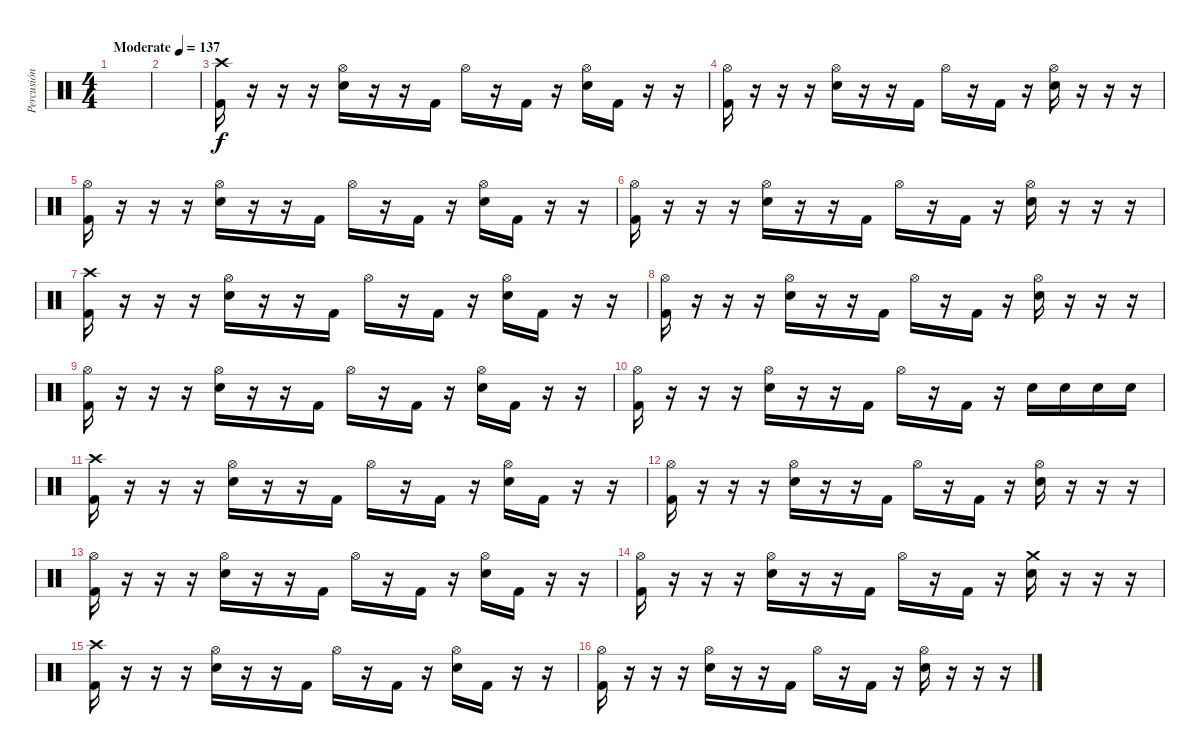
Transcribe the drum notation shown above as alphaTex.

\track ("Percusión" "Percusión") {instrument percussion}
\staff {score}
\articulation defaults
\ts (4 4)
\tempo (137 "Moderate")
\clef neutral
\ks c
|
|
("Crash high (hit)" "Kick (hit) 2").16 r.16 r.16 r.16 ("Hi-Hat (open)" "Electric Snare (hit)").16 r.16 r.16 "Kick (hit) 2".16 "Hi-Hat (open)".16 r.16 "Kick (hit) 2".16 r.16 ("Hi-Hat (open)" "Electric Snare (hit)").16 "Kick (hit) 2".16 r.16 r.16 |
("Hi-Hat (open)" "Kick (hit) 2").16 r.16 r.16 r.16 ("Hi-Hat (open)" "Electric Snare (hit)").16 r.16 r.16 "Kick (hit) 2".16 "Hi-Hat (open)".16 r.16 "Kick (hit) 2".16 r.16 ("Hi-Hat (open)" "Electric Snare (hit)").16 r.16 r.16 r.16 |
("Hi-Hat (open)" "Kick (hit) 2").16 r.16 r.16 r.16 ("Hi-Hat (open)" "Electric Snare (hit)").16 r.16 r.16 "Kick (hit) 2".16 "Hi-Hat (open)".16 r.16 "Kick (hit) 2".16 r.16 ("Hi-Hat (open)" "Electric Snare (hit)").16 "Kick (hit) 2".16 r.16 r.16 |
("Hi-Hat (open)" "Kick (hit) 2").16 r.16 r.16 r.16 ("Hi-Hat (open)" "Electric Snare (hit)").16 r.16 r.16 "Kick (hit) 2".16 "Hi-Hat (open)".16 r.16 "Kick (hit) 2".16 r.16 ("Hi-Hat (open)" "Electric Snare (hit)").16 r.16 r.16 r.16 |
("Crash high (hit)" "Kick (hit) 2").16 r.16 r.16 r.16 ("Hi-Hat (open)" "Electric Snare (hit)").16 r.16 r.16 "Kick (hit) 2".16 "Hi-Hat (open)".16 r.16 "Kick (hit) 2".16 r.16 ("Hi-Hat (open)" "Electric Snare (hit)").16 "Kick (hit) 2".16 r.16 r.16 |
("Hi-Hat (open)" "Kick (hit) 2").16 r.16 r.16 r.16 ("Hi-Hat (open)" "Electric Snare (hit)").16 r.16 r.16 "Kick (hit) 2".16 "Hi-Hat (open)".16 r.16 "Kick (hit) 2".16 r.16 ("Hi-Hat (open)" "Electric Snare (hit)").16 r.16 r.16 r.16 |
("Hi-Hat (open)" "Kick (hit) 2").16 r.16 r.16 r.16 ("Hi-Hat (open)" "Electric Snare (hit)").16 r.16 r.16 "Kick (hit) 2".16 "Hi-Hat (open)".16 r.16 "Kick (hit) 2".16 r.16 ("Hi-Hat (open)" "Electric Snare (hit)").16 "Kick (hit) 2".16 r.16 r.16 |
("Hi-Hat (open)" "Kick (hit) 2").16 r.16 r.16 r.16 ("Hi-Hat (open)" "Electric Snare (hit)").16 r.16 r.16 "Kick (hit) 2".16 "Hi-Hat (open)".16 r.16 "Kick (hit) 2".16 r.16 "Electric Snare (hit)".16 "Electric Snare (hit)".16 "Electric Snare (hit)".16 "Electric Snare (hit)".16 |
("Crash high (hit)" "Kick (hit) 2").16 r.16 r.16 r.16 ("Hi-Hat (open)" "Electric Snare (hit)").16 r.16 r.16 "Kick (hit) 2".16 "Hi-Hat (open)".16 r.16 "Kick (hit) 2".16 r.16 ("Hi-Hat (open)" "Electric Snare (hit)").16 "Kick (hit) 2".16 r.16 r.16 |
("Hi-Hat (open)" "Kick (hit) 2").16 r.16 r.16 r.16 ("Hi-Hat (open)" "Electric Snare (hit)").16 r.16 r.16 "Kick (hit) 2".16 "Hi-Hat (open)".16 r.16 "Kick (hit) 2".16 r.16 ("Hi-Hat (open)" "Electric Snare (hit)").16 r.16 r.16 r.16 |
("Hi-Hat (open)" "Kick (hit) 2").16 r.16 r.16 r.16 ("Hi-Hat (open)" "Electric Snare (hit)").16 r.16 r.16 "Kick (hit) 2".16 "Hi-Hat (open)".16 r.16 "Kick (hit) 2".16 r.16 ("Hi-Hat (open)" "Electric Snare (hit)").16 "Kick (hit) 2".16 r.16 r.16 |
("Hi-Hat (open)" "Kick (hit) 2").16 r.16 r.16 r.16 ("Hi-Hat (open)" "Electric Snare (hit)").16 r.16 r.16 "Kick (hit) 2".16 "Hi-Hat (open)".16 r.16 "Kick (hit) 2".16 r.16 ("Crash medium (hit)" "Electric Snare (hit)").16 r.16 r.16 r.16 |
("Crash high (hit)" "Kick (hit) 2").16 r.16 r.16 r.16 ("Hi-Hat (open)" "Electric Snare (hit)").16 r.16 r.16 "Kick (hit) 2".16 "Hi-Hat (open)".16 r.16 "Kick (hit) 2".16 r.16 ("Hi-Hat (open)" "Electric Snare (hit)").16 "Kick (hit) 2".16 r.16 r.16 |
("Hi-Hat (open)" "Kick (hit) 2").16 r.16 r.16 r.16 ("Hi-Hat (open)" "Electric Snare (hit)").16 r.16 r.16 "Kick (hit) 2".16 "Hi-Hat (open)".16 r.16 "Kick (hit) 2".16 r.16 ("Hi-Hat (open)" "Electric Snare (hit)").16 r.16 r.16 r.16
